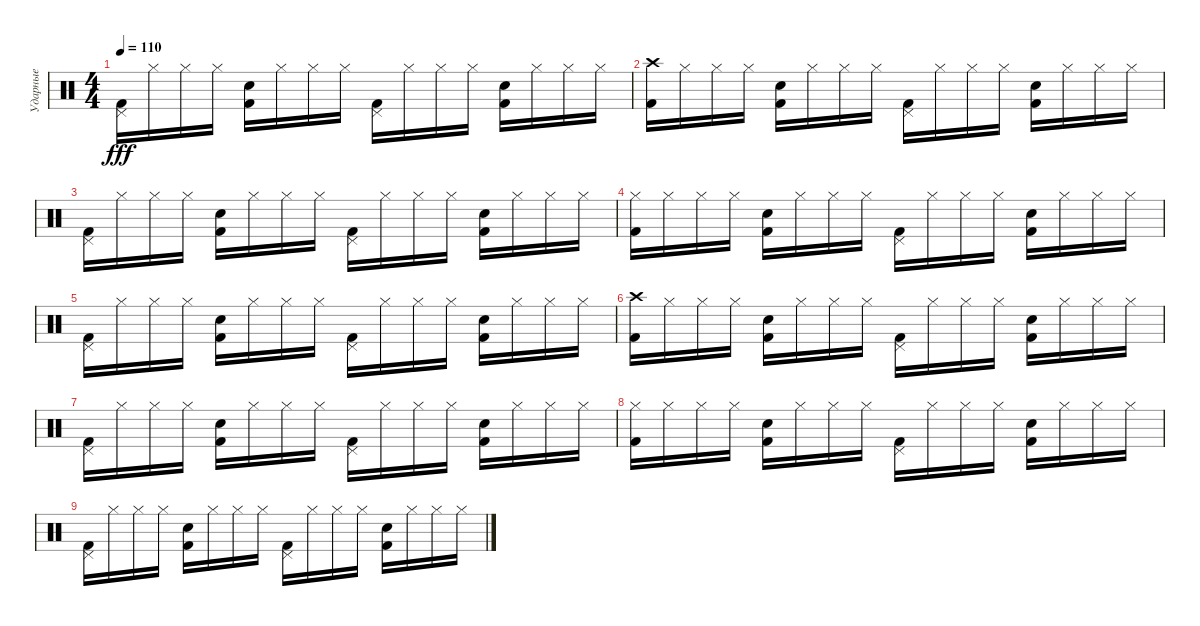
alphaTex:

\track ("Ударные" "Ударные") {instrument percussion}
\staff {score}
\articulation defaults
\ts (4 4)
\tempo 110
\clef neutral
\ks c
("Pedal Hi-Hat (hit)" "Kick (hit) 2").16{dy fff} "Hi-Hat (closed)".16 "Hi-Hat (closed)".16 "Hi-Hat (closed)".16 ("Snare (hit) 2" "Kick (hit) 2").16 "Hi-Hat (closed)".16 "Hi-Hat (closed)".16 "Hi-Hat (closed)".16 ("Pedal Hi-Hat (hit)" "Kick (hit) 2").16 "Hi-Hat (closed)".16 "Hi-Hat (closed)".16 "Hi-Hat (closed)".16 ("Snare (hit) 2" "Kick (hit) 2").16 "Hi-Hat (closed)".16 "Hi-Hat (closed)".16 "Hi-Hat (closed)".16 |
("Crash high (hit)" "Kick (hit) 2").16 "Hi-Hat (closed)".16 "Hi-Hat (closed)".16 "Hi-Hat (closed)".16 ("Snare (hit) 2" "Kick (hit) 2").16 "Hi-Hat (closed)".16 "Hi-Hat (closed)".16 "Hi-Hat (closed)".16 ("Pedal Hi-Hat (hit)" "Kick (hit) 2").16 "Hi-Hat (closed)".16 "Hi-Hat (closed)".16 "Hi-Hat (closed)".16 ("Snare (hit) 2" "Kick (hit) 2").16 "Hi-Hat (closed)".16 "Hi-Hat (closed)".16 "Hi-Hat (closed)".16 |
("Pedal Hi-Hat (hit)" "Kick (hit) 2").16 "Hi-Hat (closed)".16 "Hi-Hat (closed)".16 "Hi-Hat (closed)".16 ("Snare (hit) 2" "Kick (hit) 2").16 "Hi-Hat (closed)".16 "Hi-Hat (closed)".16 "Hi-Hat (closed)".16 ("Pedal Hi-Hat (hit)" "Kick (hit) 2").16 "Hi-Hat (closed)".16 "Hi-Hat (closed)".16 "Hi-Hat (closed)".16 ("Snare (hit) 2" "Kick (hit) 2").16 "Hi-Hat (closed)".16 "Hi-Hat (closed)".16 "Hi-Hat (closed)".16 |
("Hi-Hat (closed)" "Kick (hit) 2").16 "Hi-Hat (closed)".16 "Hi-Hat (closed)".16 "Hi-Hat (closed)".16 ("Snare (hit) 2" "Kick (hit) 2").16 "Hi-Hat (closed)".16 "Hi-Hat (closed)".16 "Hi-Hat (closed)".16 ("Pedal Hi-Hat (hit)" "Kick (hit) 2").16 "Hi-Hat (closed)".16 "Hi-Hat (closed)".16 "Hi-Hat (closed)".16 ("Snare (hit) 2" "Kick (hit) 2").16 "Hi-Hat (closed)".16 "Hi-Hat (closed)".16 "Hi-Hat (closed)".16 |
("Pedal Hi-Hat (hit)" "Kick (hit) 2").16 "Hi-Hat (closed)".16 "Hi-Hat (closed)".16 "Hi-Hat (closed)".16 ("Snare (hit) 2" "Kick (hit) 2").16 "Hi-Hat (closed)".16 "Hi-Hat (closed)".16 "Hi-Hat (closed)".16 ("Pedal Hi-Hat (hit)" "Kick (hit) 2").16 "Hi-Hat (closed)".16 "Hi-Hat (closed)".16 "Hi-Hat (closed)".16 ("Snare (hit) 2" "Kick (hit) 2").16 "Hi-Hat (closed)".16 "Hi-Hat (closed)".16 "Hi-Hat (closed)".16 |
("Crash high (hit)" "Kick (hit) 2").16 "Hi-Hat (closed)".16 "Hi-Hat (closed)".16 "Hi-Hat (closed)".16 ("Snare (hit) 2" "Kick (hit) 2").16 "Hi-Hat (closed)".16 "Hi-Hat (closed)".16 "Hi-Hat (closed)".16 ("Pedal Hi-Hat (hit)" "Kick (hit) 2").16 "Hi-Hat (closed)".16 "Hi-Hat (closed)".16 "Hi-Hat (closed)".16 ("Snare (hit) 2" "Kick (hit) 2").16 "Hi-Hat (closed)".16 "Hi-Hat (closed)".16 "Hi-Hat (closed)".16 |
("Pedal Hi-Hat (hit)" "Kick (hit) 2").16 "Hi-Hat (closed)".16 "Hi-Hat (closed)".16 "Hi-Hat (closed)".16 ("Snare (hit) 2" "Kick (hit) 2").16 "Hi-Hat (closed)".16 "Hi-Hat (closed)".16 "Hi-Hat (closed)".16 ("Pedal Hi-Hat (hit)" "Kick (hit) 2").16 "Hi-Hat (closed)".16 "Hi-Hat (closed)".16 "Hi-Hat (closed)".16 ("Snare (hit) 2" "Kick (hit) 2").16 "Hi-Hat (closed)".16 "Hi-Hat (closed)".16 "Hi-Hat (closed)".16 |
("Hi-Hat (closed)" "Kick (hit) 2").16 "Hi-Hat (closed)".16 "Hi-Hat (closed)".16 "Hi-Hat (closed)".16 ("Snare (hit) 2" "Kick (hit) 2").16 "Hi-Hat (closed)".16 "Hi-Hat (closed)".16 "Hi-Hat (closed)".16 ("Pedal Hi-Hat (hit)" "Kick (hit) 2").16 "Hi-Hat (closed)".16 "Hi-Hat (closed)".16 "Hi-Hat (closed)".16 ("Snare (hit) 2" "Kick (hit) 2").16 "Hi-Hat (closed)".16 "Hi-Hat (closed)".16 "Hi-Hat (closed)".16 |
("Pedal Hi-Hat (hit)" "Kick (hit) 2").16 "Hi-Hat (closed)".16 "Hi-Hat (closed)".16 "Hi-Hat (closed)".16 ("Snare (hit) 2" "Kick (hit) 2").16 "Hi-Hat (closed)".16 "Hi-Hat (closed)".16 "Hi-Hat (closed)".16 ("Pedal Hi-Hat (hit)" "Kick (hit) 2").16 "Hi-Hat (closed)".16 "Hi-Hat (closed)".16 "Hi-Hat (closed)".16 ("Snare (hit) 2" "Kick (hit) 2").16 "Hi-Hat (closed)".16 "Hi-Hat (closed)".16 "Hi-Hat (closed)".16
